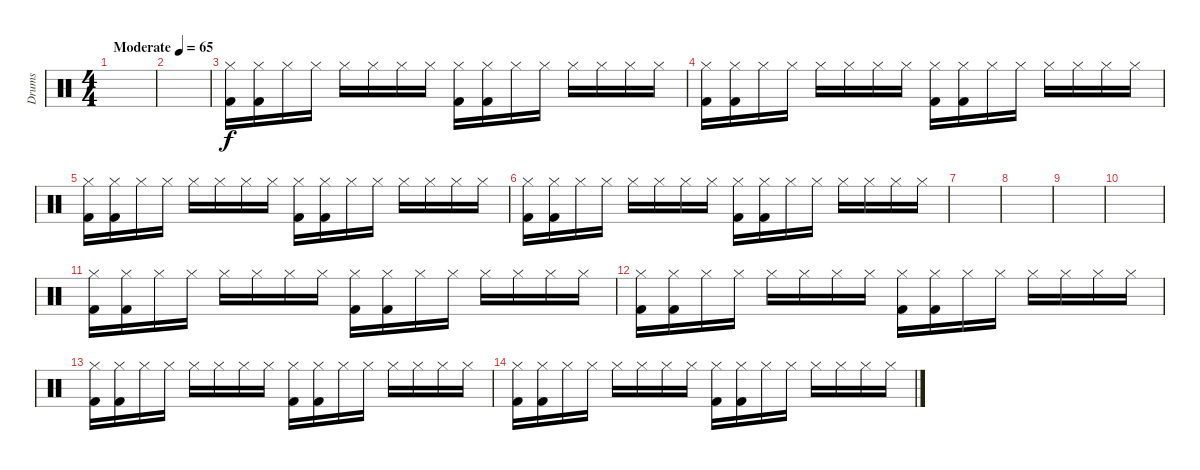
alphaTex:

\track ("Drums" "Drums") {instrument percussion}
\staff {score}
\articulation defaults
\ts (4 4)
\tempo (65 "Moderate")
\clef neutral
\ks c
|
|
("Kick (hit) 2" "Hi-Hat (closed)").16 ("Kick (hit) 2" "Hi-Hat (closed)").16 "Hi-Hat (closed)".16 "Hi-Hat (closed)".16 "Hi-Hat (closed)".16 "Hi-Hat (closed)".16 "Hi-Hat (closed)".16 "Hi-Hat (closed)".16 ("Kick (hit) 2" "Hi-Hat (closed)").16 ("Kick (hit) 2" "Hi-Hat (closed)").16 "Hi-Hat (closed)".16 "Hi-Hat (closed)".16 "Hi-Hat (closed)".16 "Hi-Hat (closed)".16 "Hi-Hat (closed)".16 "Hi-Hat (closed)".16 |
("Kick (hit) 2" "Hi-Hat (closed)").16 ("Kick (hit) 2" "Hi-Hat (closed)").16 "Hi-Hat (closed)".16 "Hi-Hat (closed)".16 "Hi-Hat (closed)".16 "Hi-Hat (closed)".16 "Hi-Hat (closed)".16 "Hi-Hat (closed)".16 ("Kick (hit) 2" "Hi-Hat (closed)").16 ("Kick (hit) 2" "Hi-Hat (closed)").16 "Hi-Hat (closed)".16 "Hi-Hat (closed)".16 "Hi-Hat (closed)".16 "Hi-Hat (closed)".16 "Hi-Hat (closed)".16 "Hi-Hat (closed)".16 |
("Kick (hit) 2" "Hi-Hat (closed)").16 ("Kick (hit) 2" "Hi-Hat (closed)").16 "Hi-Hat (closed)".16 "Hi-Hat (closed)".16 "Hi-Hat (closed)".16 "Hi-Hat (closed)".16 "Hi-Hat (closed)".16 "Hi-Hat (closed)".16 ("Kick (hit) 2" "Hi-Hat (closed)").16 ("Kick (hit) 2" "Hi-Hat (closed)").16 "Hi-Hat (closed)".16 "Hi-Hat (closed)".16 "Hi-Hat (closed)".16 "Hi-Hat (closed)".16 "Hi-Hat (closed)".16 "Hi-Hat (closed)".16 |
("Kick (hit) 2" "Hi-Hat (closed)").16 ("Kick (hit) 2" "Hi-Hat (closed)").16 "Hi-Hat (closed)".16 "Hi-Hat (closed)".16 "Hi-Hat (closed)".16 "Hi-Hat (closed)".16 "Hi-Hat (closed)".16 "Hi-Hat (closed)".16 ("Kick (hit) 2" "Hi-Hat (closed)").16 ("Kick (hit) 2" "Hi-Hat (closed)").16 "Hi-Hat (closed)".16 "Hi-Hat (closed)".16 "Hi-Hat (closed)".16 "Hi-Hat (closed)".16 "Hi-Hat (closed)".16 "Hi-Hat (closed)".16 |
|
|
|
|
("Kick (hit) 2" "Hi-Hat (closed)").16 ("Kick (hit) 2" "Hi-Hat (closed)").16 "Hi-Hat (closed)".16 "Hi-Hat (closed)".16 "Hi-Hat (closed)".16 "Hi-Hat (closed)".16 "Hi-Hat (closed)".16 "Hi-Hat (closed)".16 ("Kick (hit) 2" "Hi-Hat (closed)").16 ("Kick (hit) 2" "Hi-Hat (closed)").16 "Hi-Hat (closed)".16 "Hi-Hat (closed)".16 "Hi-Hat (closed)".16 "Hi-Hat (closed)".16 "Hi-Hat (closed)".16 "Hi-Hat (closed)".16 |
("Kick (hit) 2" "Hi-Hat (closed)").16 ("Kick (hit) 2" "Hi-Hat (closed)").16 "Hi-Hat (closed)".16 "Hi-Hat (closed)".16 "Hi-Hat (closed)".16 "Hi-Hat (closed)".16 "Hi-Hat (closed)".16 "Hi-Hat (closed)".16 ("Kick (hit) 2" "Hi-Hat (closed)").16 ("Kick (hit) 2" "Hi-Hat (closed)").16 "Hi-Hat (closed)".16 "Hi-Hat (closed)".16 "Hi-Hat (closed)".16 "Hi-Hat (closed)".16 "Hi-Hat (closed)".16 "Hi-Hat (closed)".16 |
("Kick (hit) 2" "Hi-Hat (closed)").16 ("Kick (hit) 2" "Hi-Hat (closed)").16 "Hi-Hat (closed)".16 "Hi-Hat (closed)".16 "Hi-Hat (closed)".16 "Hi-Hat (closed)".16 "Hi-Hat (closed)".16 "Hi-Hat (closed)".16 ("Kick (hit) 2" "Hi-Hat (closed)").16 ("Kick (hit) 2" "Hi-Hat (closed)").16 "Hi-Hat (closed)".16 "Hi-Hat (closed)".16 "Hi-Hat (closed)".16 "Hi-Hat (closed)".16 "Hi-Hat (closed)".16 "Hi-Hat (closed)".16 |
("Kick (hit) 2" "Hi-Hat (closed)").16 ("Kick (hit) 2" "Hi-Hat (closed)").16 "Hi-Hat (closed)".16 "Hi-Hat (closed)".16 "Hi-Hat (closed)".16 "Hi-Hat (closed)".16 "Hi-Hat (closed)".16 "Hi-Hat (closed)".16 ("Kick (hit) 2" "Hi-Hat (closed)").16 ("Kick (hit) 2" "Hi-Hat (closed)").16 "Hi-Hat (closed)".16 "Hi-Hat (closed)".16 "Hi-Hat (closed)".16 "Hi-Hat (closed)".16 "Hi-Hat (closed)".16 "Hi-Hat (closed)".16
